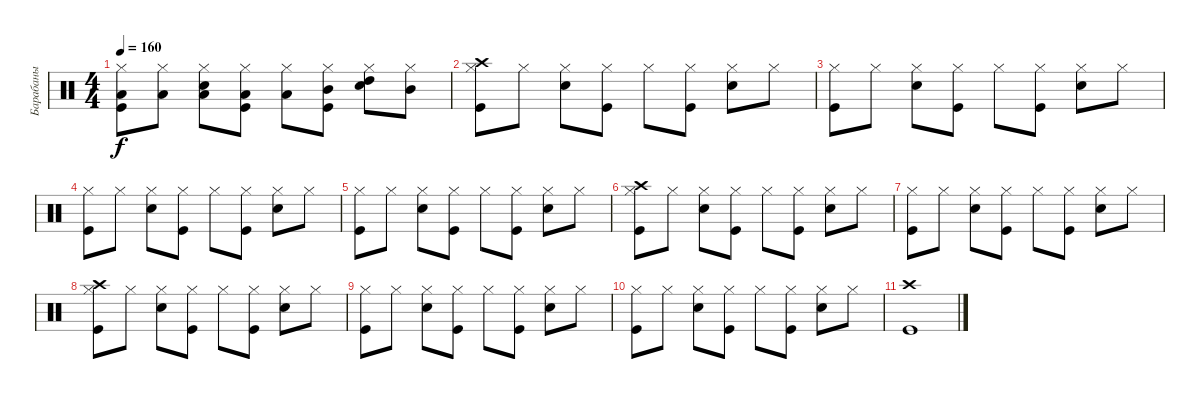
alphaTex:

\track ("Барабаны" "Барабаны") {instrument percussion}
\staff {score}
\articulation defaults
\ts (4 4)
\tempo 160
\clef neutral
\ks c
("Kick (hit)" "Low Tom (hit)" "Hi-Hat (closed)").8{dy f} ("Low Tom (hit)" "Hi-Hat (closed)").8 ("Snare (hit) 2" "Low Tom (hit)" "Hi-Hat (closed)").8 ("Kick (hit)" "Low Tom (hit)" "Hi-Hat (closed)").8 ("Low Tom (hit)" "Hi-Hat (closed)").8 ("Kick (hit)" "Mid Tom (hit)" "Hi-Hat (closed)").8 ("Snare (hit) 2" "High Tom (hit)" "Hi-Hat (closed)").8 ("Mid Tom (hit)" "Hi-Hat (closed)").8 |
("Kick (hit)" "Crash high (hit)" "Hi-Hat (closed)").8 "Hi-Hat (closed)".8 ("Snare (hit) 2" "Hi-Hat (closed)").8 ("Kick (hit)" "Hi-Hat (closed)").8 "Hi-Hat (closed)".8 ("Kick (hit)" "Hi-Hat (closed)").8 ("Snare (hit) 2" "Hi-Hat (closed)").8 "Hi-Hat (closed)".8 |
("Kick (hit)" "Hi-Hat (closed)").8 "Hi-Hat (closed)".8 ("Snare (hit) 2" "Hi-Hat (closed)").8 ("Kick (hit)" "Hi-Hat (closed)").8 "Hi-Hat (closed)".8 ("Kick (hit)" "Hi-Hat (closed)").8 ("Snare (hit) 2" "Hi-Hat (closed)").8 "Hi-Hat (closed)".8 |
("Kick (hit)" "Hi-Hat (closed)").8 "Hi-Hat (closed)".8 ("Snare (hit) 2" "Hi-Hat (closed)").8 ("Kick (hit)" "Hi-Hat (closed)").8 "Hi-Hat (closed)".8 ("Kick (hit)" "Hi-Hat (closed)").8 ("Snare (hit) 2" "Hi-Hat (closed)").8 "Hi-Hat (closed)".8 |
("Kick (hit)" "Hi-Hat (closed)").8 "Hi-Hat (closed)".8 ("Snare (hit) 2" "Hi-Hat (closed)").8 ("Kick (hit)" "Hi-Hat (closed)").8 "Hi-Hat (closed)".8 ("Kick (hit)" "Hi-Hat (closed)").8 ("Snare (hit) 2" "Hi-Hat (closed)").8 "Hi-Hat (closed)".8 |
("Kick (hit)" "Crash high (hit)" "Hi-Hat (closed)").8 "Hi-Hat (closed)".8 ("Snare (hit) 2" "Hi-Hat (closed)").8 ("Kick (hit)" "Hi-Hat (closed)").8 "Hi-Hat (closed)".8 ("Kick (hit)" "Hi-Hat (closed)").8 ("Snare (hit) 2" "Hi-Hat (closed)").8 "Hi-Hat (closed)".8 |
("Kick (hit)" "Hi-Hat (closed)").8 "Hi-Hat (closed)".8 ("Snare (hit) 2" "Hi-Hat (closed)").8 ("Kick (hit)" "Hi-Hat (closed)").8 "Hi-Hat (closed)".8 ("Kick (hit)" "Hi-Hat (closed)").8 ("Snare (hit) 2" "Hi-Hat (closed)").8 "Hi-Hat (closed)".8 |
("Kick (hit)" "Crash high (hit)" "Hi-Hat (closed)").8 "Hi-Hat (closed)".8 ("Snare (hit) 2" "Hi-Hat (closed)").8 ("Kick (hit)" "Hi-Hat (closed)").8 "Hi-Hat (closed)".8 ("Kick (hit)" "Hi-Hat (closed)").8 ("Snare (hit) 2" "Hi-Hat (closed)").8 "Hi-Hat (closed)".8 |
("Kick (hit)" "Hi-Hat (closed)").8 "Hi-Hat (closed)".8 ("Snare (hit) 2" "Hi-Hat (closed)").8 ("Kick (hit)" "Hi-Hat (closed)").8 "Hi-Hat (closed)".8 ("Kick (hit)" "Hi-Hat (closed)").8 ("Snare (hit) 2" "Hi-Hat (closed)").8 "Hi-Hat (closed)".8 |
("Kick (hit)" "Hi-Hat (closed)").8 "Hi-Hat (closed)".8 ("Snare (hit) 2" "Hi-Hat (closed)").8 ("Kick (hit)" "Hi-Hat (closed)").8 "Hi-Hat (closed)".8 ("Kick (hit)" "Hi-Hat (closed)").8 ("Snare (hit) 2" "Hi-Hat (closed)").8 "Hi-Hat (closed)".8 |
("Kick (hit)" "Crash high (hit)").1
